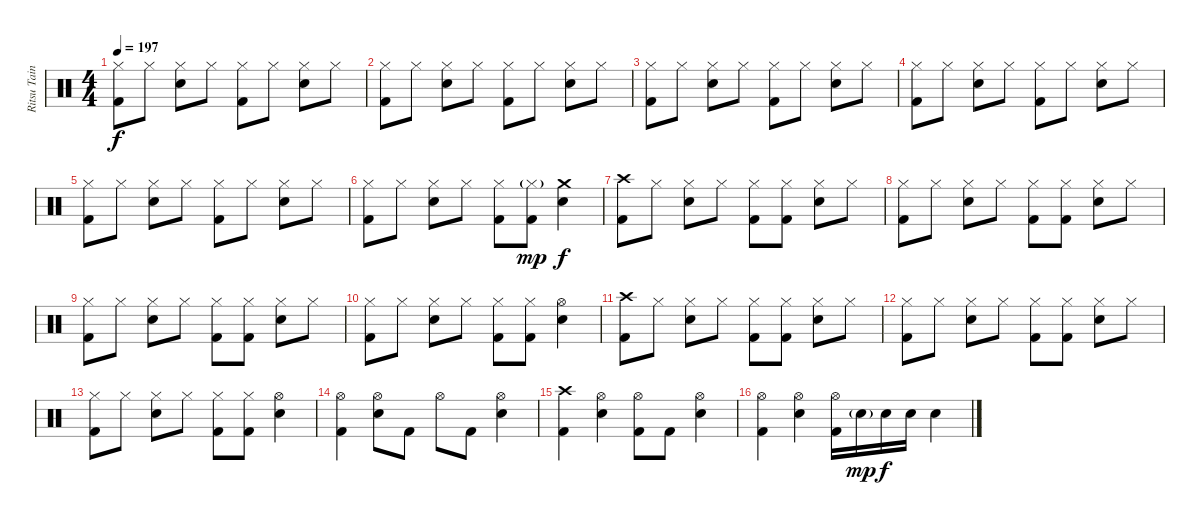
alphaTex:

\track ("Ritsu Tainaka" "Ritsu Tain") {instrument percussion}
\staff {score}
\articulation defaults
\ts (4 4)
\tempo 197
\clef neutral
\ks c
("Hi-Hat (closed)" "Kick (hit) 2").8{dy f} "Hi-Hat (closed)".8 ("Hi-Hat (closed)" "Electric Snare (hit)").8 "Hi-Hat (closed)".8 ("Hi-Hat (closed)" "Kick (hit) 2").8 "Hi-Hat (closed)".8 ("Hi-Hat (closed)" "Electric Snare (hit)").8 "Hi-Hat (closed)".8 |
("Hi-Hat (closed)" "Kick (hit) 2").8 "Hi-Hat (closed)".8 ("Hi-Hat (closed)" "Electric Snare (hit)").8 "Hi-Hat (closed)".8 ("Hi-Hat (closed)" "Kick (hit) 2").8 "Hi-Hat (closed)".8 ("Hi-Hat (closed)" "Electric Snare (hit)").8 "Hi-Hat (closed)".8 |
("Hi-Hat (closed)" "Kick (hit) 2").8 "Hi-Hat (closed)".8 ("Hi-Hat (closed)" "Electric Snare (hit)").8 "Hi-Hat (closed)".8 ("Hi-Hat (closed)" "Kick (hit) 2").8 "Hi-Hat (closed)".8 ("Hi-Hat (closed)" "Electric Snare (hit)").8 "Hi-Hat (closed)".8 |
("Hi-Hat (closed)" "Kick (hit) 2").8 "Hi-Hat (closed)".8 ("Hi-Hat (closed)" "Electric Snare (hit)").8 "Hi-Hat (closed)".8 ("Hi-Hat (closed)" "Kick (hit) 2").8 "Hi-Hat (closed)".8 ("Hi-Hat (closed)" "Electric Snare (hit)").8 "Hi-Hat (closed)".8 |
("Hi-Hat (closed)" "Kick (hit) 2").8 "Hi-Hat (closed)".8 ("Hi-Hat (closed)" "Electric Snare (hit)").8 "Hi-Hat (closed)".8 ("Hi-Hat (closed)" "Kick (hit) 2").8 "Hi-Hat (closed)".8 ("Hi-Hat (closed)" "Electric Snare (hit)").8 "Hi-Hat (closed)".8 |
("Hi-Hat (closed)" "Kick (hit) 2").8 "Hi-Hat (closed)".8 ("Hi-Hat (closed)" "Electric Snare (hit)").8 "Hi-Hat (closed)".8 ("Hi-Hat (closed)" "Kick (hit) 2").8 ("Hi-Hat (closed)"{g} "Kick (hit) 2").8{dy mp} ("Crash medium (hit)" "Electric Snare (hit)").4{dy f} |
("Crash high (hit)" "Kick (hit) 2").8 "Hi-Hat (closed)".8 ("Hi-Hat (closed)" "Electric Snare (hit)").8 "Hi-Hat (closed)".8 ("Hi-Hat (closed)" "Kick (hit) 2").8 ("Hi-Hat (closed)" "Kick (hit) 2").8 ("Hi-Hat (closed)" "Electric Snare (hit)").8 "Hi-Hat (closed)".8 |
("Hi-Hat (closed)" "Kick (hit) 2").8 "Hi-Hat (closed)".8 ("Hi-Hat (closed)" "Electric Snare (hit)").8 "Hi-Hat (closed)".8 ("Hi-Hat (closed)" "Kick (hit) 2").8 ("Hi-Hat (closed)" "Kick (hit) 2").8 ("Hi-Hat (closed)" "Electric Snare (hit)").8 "Hi-Hat (closed)".8 |
("Hi-Hat (closed)" "Kick (hit) 2").8 "Hi-Hat (closed)".8 ("Hi-Hat (closed)" "Electric Snare (hit)").8 "Hi-Hat (closed)".8 ("Hi-Hat (closed)" "Kick (hit) 2").8 ("Hi-Hat (closed)" "Kick (hit) 2").8 ("Hi-Hat (closed)" "Electric Snare (hit)").8 "Hi-Hat (closed)".8 |
("Hi-Hat (closed)" "Kick (hit) 2").8 "Hi-Hat (closed)".8 ("Hi-Hat (closed)" "Electric Snare (hit)").8 "Hi-Hat (closed)".8 ("Hi-Hat (closed)" "Kick (hit) 2").8 ("Hi-Hat (closed)" "Kick (hit) 2").8 ("Hi-Hat (open)" "Electric Snare (hit)").4 |
("Crash high (hit)" "Kick (hit) 2").8 "Hi-Hat (closed)".8 ("Hi-Hat (closed)" "Electric Snare (hit)").8 "Hi-Hat (closed)".8 ("Hi-Hat (closed)" "Kick (hit) 2").8 ("Hi-Hat (closed)" "Kick (hit) 2").8 ("Hi-Hat (closed)" "Electric Snare (hit)").8 "Hi-Hat (closed)".8 |
("Hi-Hat (closed)" "Kick (hit) 2").8 "Hi-Hat (closed)".8 ("Hi-Hat (closed)" "Electric Snare (hit)").8 "Hi-Hat (closed)".8 ("Hi-Hat (closed)" "Kick (hit) 2").8 ("Hi-Hat (closed)" "Kick (hit) 2").8 ("Hi-Hat (closed)" "Electric Snare (hit)").8 "Hi-Hat (closed)".8 |
("Hi-Hat (closed)" "Kick (hit) 2").8 "Hi-Hat (closed)".8 ("Hi-Hat (closed)" "Electric Snare (hit)").8 "Hi-Hat (closed)".8 ("Hi-Hat (closed)" "Kick (hit) 2").8 ("Hi-Hat (closed)" "Kick (hit) 2").8 ("Hi-Hat (open)" "Electric Snare (hit)").4 |
("Hi-Hat (open)" "Kick (hit) 2").4 ("Hi-Hat (open)" "Electric Snare (hit)").8 "Kick (hit) 2".8 "Hi-Hat (open)".8 "Kick (hit) 2".8 ("Hi-Hat (open)" "Electric Snare (hit)").4 |
("Crash high (hit)" "Kick (hit) 2").4 ("Hi-Hat (open)" "Electric Snare (hit)").4 ("Hi-Hat (open)" "Kick (hit) 2").8 "Kick (hit) 2".8 ("Hi-Hat (open)" "Electric Snare (hit)").4 |
("Hi-Hat (open)" "Kick (hit) 2").4 ("Hi-Hat (open)" "Electric Snare (hit)").4 ("Hi-Hat (open)" "Kick (hit) 2").16 "Electric Snare (hit)"{g}.16{dy mp} "Electric Snare (hit)".16{dy f} "Electric Snare (hit)".16 "Electric Snare (hit)".4
